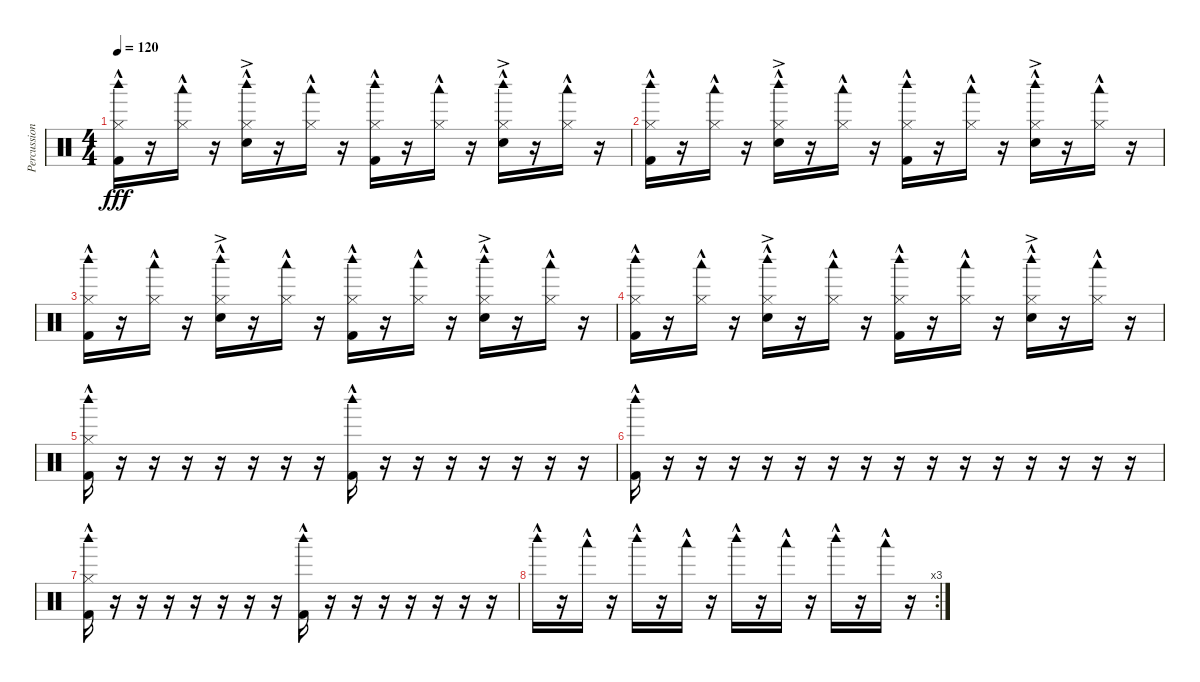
\track ("Percussion" "Percussion") {instrument percussion}
\staff {score}
\articulation defaults
\ts (4 4)
\tempo 120
\clef neutral
\ks c
("Hi-Hat (closed)"{hac} "Woodblock high (hit)"{hac} "Kick (hit) 2"{hac}).16{dy fff} r.16 ("Hi-Hat (closed)"{hac} "Woodblock low (hit)"{hac}).16 r.16 ("Hi-Hat (closed)"{hac} "Snare (hit) 2"{ac} "Woodblock high (hit)"{hac}).16 r.16 ("Hi-Hat (closed)"{hac} "Woodblock low (hit)"{hac}).16 r.16 ("Hi-Hat (closed)"{hac} "Woodblock high (hit)"{hac} "Kick (hit) 2"{hac}).16 r.16 ("Hi-Hat (closed)"{hac} "Woodblock low (hit)"{hac}).16 r.16 ("Hi-Hat (closed)"{hac} "Snare (hit) 2"{ac} "Woodblock high (hit)"{hac}).16 r.16 ("Hi-Hat (closed)"{hac} "Woodblock low (hit)"{hac}).16 r.16 |
("Hi-Hat (closed)"{hac} "Woodblock high (hit)"{hac} "Kick (hit) 2"{hac}).16 r.16 ("Hi-Hat (closed)"{hac} "Woodblock low (hit)"{hac}).16 r.16 ("Hi-Hat (closed)"{hac} "Snare (hit) 2"{ac} "Woodblock high (hit)"{hac}).16 r.16 ("Hi-Hat (closed)"{hac} "Woodblock low (hit)"{hac}).16 r.16 ("Hi-Hat (closed)"{hac} "Woodblock high (hit)"{hac} "Kick (hit) 2"{hac}).16 r.16 ("Hi-Hat (closed)"{hac} "Woodblock low (hit)"{hac}).16 r.16 ("Hi-Hat (closed)"{hac} "Snare (hit) 2"{ac} "Woodblock high (hit)"{hac}).16 r.16 ("Hi-Hat (closed)"{hac} "Woodblock low (hit)"{hac}).16 r.16 |
("Hi-Hat (closed)"{hac} "Woodblock high (hit)"{hac} "Kick (hit) 2"{hac}).16 r.16 ("Hi-Hat (closed)"{hac} "Woodblock low (hit)"{hac}).16 r.16 ("Hi-Hat (closed)"{hac} "Snare (hit) 2"{ac} "Woodblock high (hit)"{hac}).16 r.16 ("Hi-Hat (closed)"{hac} "Woodblock low (hit)"{hac}).16 r.16 ("Hi-Hat (closed)"{hac} "Woodblock high (hit)"{hac} "Kick (hit) 2"{hac}).16 r.16 ("Hi-Hat (closed)"{hac} "Woodblock low (hit)"{hac}).16 r.16 ("Hi-Hat (closed)"{hac} "Snare (hit) 2"{ac} "Woodblock high (hit)"{hac}).16 r.16 ("Hi-Hat (closed)"{hac} "Woodblock low (hit)"{hac}).16 r.16 |
("Hi-Hat (closed)"{hac} "Woodblock high (hit)"{hac} "Kick (hit) 2"{hac}).16 r.16 ("Hi-Hat (closed)"{hac} "Woodblock low (hit)"{hac}).16 r.16 ("Hi-Hat (closed)"{hac} "Snare (hit) 2"{ac} "Woodblock high (hit)"{hac}).16 r.16 ("Hi-Hat (closed)"{hac} "Woodblock low (hit)"{hac}).16 r.16 ("Hi-Hat (closed)"{hac} "Woodblock high (hit)"{hac} "Kick (hit) 2"{hac}).16 r.16 ("Hi-Hat (closed)"{hac} "Woodblock low (hit)"{hac}).16 r.16 ("Hi-Hat (closed)"{hac} "Snare (hit) 2"{ac} "Woodblock high (hit)"{hac}).16 r.16 ("Hi-Hat (closed)"{hac} "Woodblock low (hit)"{hac}).16 r.16 |
("Hi-Hat (closed)"{hac} "Woodblock high (hit)"{hac} "Kick (hit) 2"{hac}).16 r.16 r.16 r.16 r.16 r.16 r.16 r.16 ("Woodblock high (hit)"{hac} "Kick (hit) 2"{hac}).16 r.16 r.16 r.16 r.16 r.16 r.16 r.16 |
("Woodblock high (hit)"{hac} "Kick (hit) 2"{hac}).16 r.16 r.16 r.16 r.16 r.16 r.16 r.16 r.16 r.16 r.16 r.16 r.16 r.16 r.16 r.16 |
("Hi-Hat (closed)"{hac} "Woodblock high (hit)"{hac} "Kick (hit) 2"{hac}).16 r.16 r.16 r.16 r.16 r.16 r.16 r.16 ("Woodblock high (hit)"{hac} "Kick (hit) 2"{hac}).16 r.16 r.16 r.16 r.16 r.16 r.16 r.16 |
\rc 3 "Woodblock high (hit)"{hac}.16
r.16 "Woodblock low (hit)"{hac}.16 r.16 "Woodblock high (hit)"{hac}.16 r.16 "Woodblock low (hit)"{hac}.16 r.16 "Woodblock high (hit)"{hac}.16 r.16 "Woodblock low (hit)"{hac}.16 r.16 "Woodblock high (hit)"{hac}.16 r.16 "Woodblock low (hit)"{hac}.16 r.16
